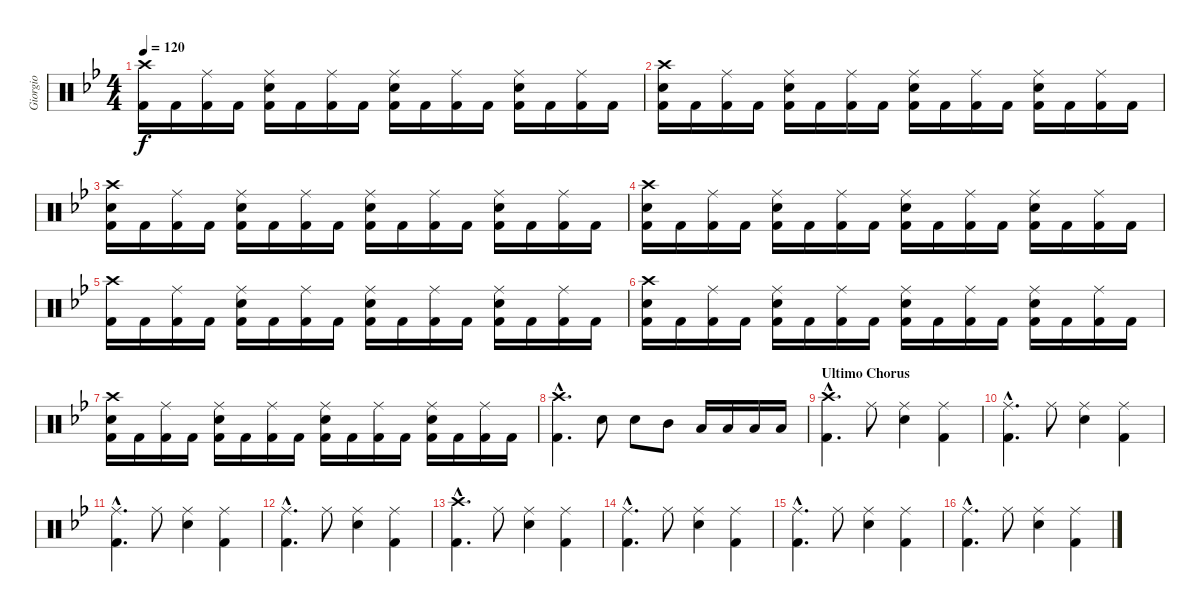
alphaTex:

\track ("Giorgio" "Giorgio") {instrument percussion}
\staff {score}
\articulation defaults
\ts (4 4)
\tempo 120
\clef neutral
\ks gminor
("Crash high (hit)" "Kick (hit) 2").16{dy f} "Kick (hit) 2".16 ("Ride (middle)" "Kick (hit) 2").16 "Kick (hit) 2".16 ("Snare (hit) 2" "Ride (middle)" "Kick (hit) 2").16 "Kick (hit) 2".16 ("Ride (middle)" "Kick (hit) 2").16 "Kick (hit) 2".16 ("Snare (hit) 2" "Ride (middle)" "Kick (hit) 2").16 "Kick (hit) 2".16 ("Ride (middle)" "Kick (hit) 2").16 "Kick (hit) 2".16 ("Snare (hit) 2" "Ride (middle)" "Kick (hit) 2").16 "Kick (hit) 2".16 ("Ride (middle)" "Kick (hit) 2").16 "Kick (hit) 2".16 |
("Crash high (hit)" "Snare (hit) 2" "Kick (hit) 2").16 "Kick (hit) 2".16 ("Ride (middle)" "Kick (hit) 2").16 "Kick (hit) 2".16 ("Snare (hit) 2" "Ride (middle)" "Kick (hit) 2").16 "Kick (hit) 2".16 ("Ride (middle)" "Kick (hit) 2").16 "Kick (hit) 2".16 ("Snare (hit) 2" "Ride (middle)" "Kick (hit) 2").16 "Kick (hit) 2".16 ("Ride (middle)" "Kick (hit) 2").16 "Kick (hit) 2".16 ("Snare (hit) 2" "Ride (middle)" "Kick (hit) 2").16 "Kick (hit) 2".16 ("Ride (middle)" "Kick (hit) 2").16 "Kick (hit) 2".16 |
("Crash high (hit)" "Snare (hit) 2" "Kick (hit) 2").16 "Kick (hit) 2".16 ("Ride (middle)" "Kick (hit) 2").16 "Kick (hit) 2".16 ("Snare (hit) 2" "Ride (middle)" "Kick (hit) 2").16 "Kick (hit) 2".16 ("Ride (middle)" "Kick (hit) 2").16 "Kick (hit) 2".16 ("Snare (hit) 2" "Ride (middle)" "Kick (hit) 2").16 "Kick (hit) 2".16 ("Ride (middle)" "Kick (hit) 2").16 "Kick (hit) 2".16 ("Snare (hit) 2" "Ride (middle)" "Kick (hit) 2").16 "Kick (hit) 2".16 ("Ride (middle)" "Kick (hit) 2").16 "Kick (hit) 2".16 |
("Crash high (hit)" "Snare (hit) 2" "Kick (hit) 2").16 "Kick (hit) 2".16 ("Ride (middle)" "Kick (hit) 2").16 "Kick (hit) 2".16 ("Snare (hit) 2" "Ride (middle)" "Kick (hit) 2").16 "Kick (hit) 2".16 ("Ride (middle)" "Kick (hit) 2").16 "Kick (hit) 2".16 ("Snare (hit) 2" "Ride (middle)" "Kick (hit) 2").16 "Kick (hit) 2".16 ("Ride (middle)" "Kick (hit) 2").16 "Kick (hit) 2".16 ("Snare (hit) 2" "Ride (middle)" "Kick (hit) 2").16 "Kick (hit) 2".16 ("Ride (middle)" "Kick (hit) 2").16 "Kick (hit) 2".16 |
("Crash high (hit)" "Kick (hit) 2").16 "Kick (hit) 2".16 ("Ride (middle)" "Kick (hit) 2").16 "Kick (hit) 2".16 ("Snare (hit) 2" "Ride (middle)" "Kick (hit) 2").16 "Kick (hit) 2".16 ("Ride (middle)" "Kick (hit) 2").16 "Kick (hit) 2".16 ("Snare (hit) 2" "Ride (middle)" "Kick (hit) 2").16 "Kick (hit) 2".16 ("Ride (middle)" "Kick (hit) 2").16 "Kick (hit) 2".16 ("Snare (hit) 2" "Ride (middle)" "Kick (hit) 2").16 "Kick (hit) 2".16 ("Ride (middle)" "Kick (hit) 2").16 "Kick (hit) 2".16 |
("Crash high (hit)" "Snare (hit) 2" "Kick (hit) 2").16 "Kick (hit) 2".16 ("Ride (middle)" "Kick (hit) 2").16 "Kick (hit) 2".16 ("Snare (hit) 2" "Ride (middle)" "Kick (hit) 2").16 "Kick (hit) 2".16 ("Ride (middle)" "Kick (hit) 2").16 "Kick (hit) 2".16 ("Snare (hit) 2" "Ride (middle)" "Kick (hit) 2").16 "Kick (hit) 2".16 ("Ride (middle)" "Kick (hit) 2").16 "Kick (hit) 2".16 ("Snare (hit) 2" "Ride (middle)" "Kick (hit) 2").16 "Kick (hit) 2".16 ("Ride (middle)" "Kick (hit) 2").16 "Kick (hit) 2".16 |
("Crash high (hit)" "Snare (hit) 2" "Kick (hit) 2").16 "Kick (hit) 2".16 ("Ride (middle)" "Kick (hit) 2").16 "Kick (hit) 2".16 ("Snare (hit) 2" "Ride (middle)" "Kick (hit) 2").16 "Kick (hit) 2".16 ("Ride (middle)" "Kick (hit) 2").16 "Kick (hit) 2".16 ("Snare (hit) 2" "Ride (middle)" "Kick (hit) 2").16 "Kick (hit) 2".16 ("Ride (middle)" "Kick (hit) 2").16 "Kick (hit) 2".16 ("Snare (hit) 2" "Ride (middle)" "Kick (hit) 2").16 "Kick (hit) 2".16 ("Ride (middle)" "Kick (hit) 2").16 "Kick (hit) 2".16 |
("Crash high (hit)"{hac} "Kick (hit) 2"{hac}).4{d} "Snare (hit) 2".8 "Snare (hit) 2".8 "Mid Tom (hit)".8 "Low Tom (hit)".16 "Low Tom (hit)".16 "Low Floor Tom (hit)".16 "Low Floor Tom (hit)".16 |
\section ("" "Ultimo Chorus")
("Crash high (hit)"{hac} "Kick (hit) 2"{hac}).4{d} "Ride (middle)".8 ("Ride (middle)" "Snare (hit) 2").4 ("Ride (middle)" "Kick (hit) 2").4 |
("Ride (middle)"{hac} "Kick (hit) 2"{hac}).4{d} "Ride (middle)".8 ("Ride (middle)" "Snare (hit) 2").4 ("Kick (hit) 2" "Ride (middle)").4 |
("Ride (middle)"{hac} "Kick (hit) 2"{hac}).4{d} "Ride (middle)".8 ("Ride (middle)" "Snare (hit) 2").4 ("Kick (hit) 2" "Ride (middle)").4 |
("Ride (middle)"{hac} "Kick (hit) 2"{hac}).4{d} "Ride (middle)".8 ("Ride (middle)" "Snare (hit) 2").4 ("Kick (hit) 2" "Ride (middle)").4 |
("Crash high (hit)"{hac} "Kick (hit) 2"{hac}).4{d} "Ride (middle)".8 ("Ride (middle)" "Snare (hit) 2").4 ("Ride (middle)" "Kick (hit) 2").4 |
("Ride (middle)"{hac} "Kick (hit) 2"{hac}).4{d} "Ride (middle)".8 ("Ride (middle)" "Snare (hit) 2").4 ("Kick (hit) 2" "Ride (middle)").4 |
("Ride (middle)"{hac} "Kick (hit) 2"{hac}).4{d} "Ride (middle)".8 ("Ride (middle)" "Snare (hit) 2").4 ("Kick (hit) 2" "Ride (middle)").4 |
("Ride (middle)"{hac} "Kick (hit) 2"{hac}).4{d} "Ride (middle)".8 ("Ride (middle)" "Snare (hit) 2").4 ("Kick (hit) 2" "Ride (middle)").4
